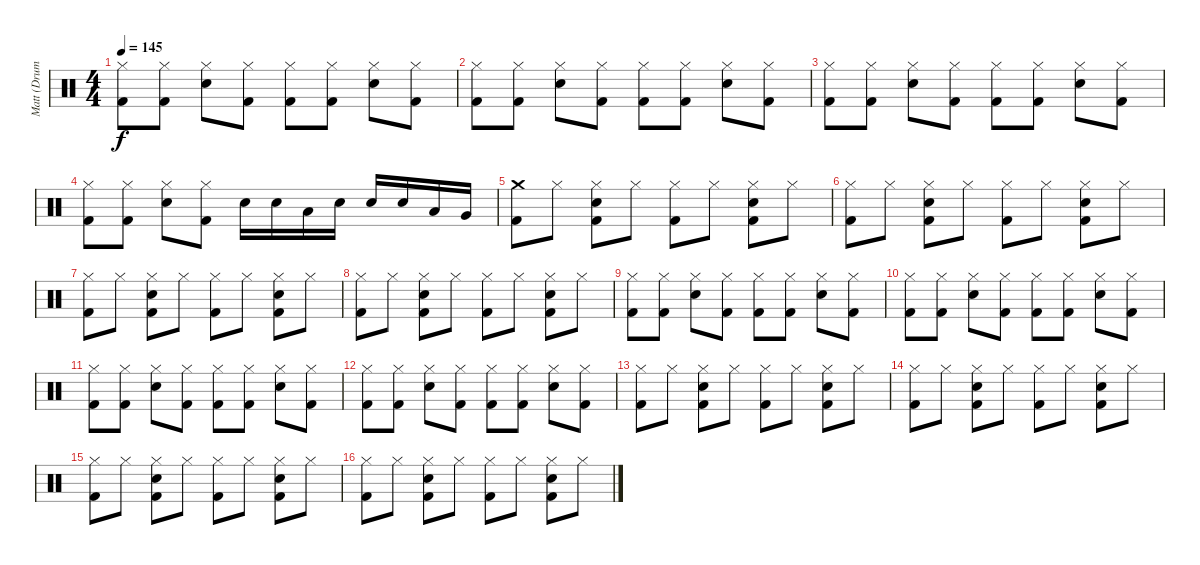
\track ("Matt (Drums)" "Matt (Drum") {instrument percussion}
\staff {score}
\articulation defaults
\ts (4 4)
\tempo 145
\clef neutral
\ks c
("Hi-Hat (closed)" "Kick (hit) 2").8{dy f} ("Hi-Hat (closed)" "Kick (hit) 2").8 ("Hi-Hat (closed)" "Electric Snare (hit)").8 ("Hi-Hat (closed)" "Kick (hit) 2").8 ("Hi-Hat (closed)" "Kick (hit) 2").8 ("Hi-Hat (closed)" "Kick (hit) 2").8 ("Hi-Hat (closed)" "Electric Snare (hit)").8 ("Hi-Hat (closed)" "Kick (hit) 2").8 |
("Hi-Hat (closed)" "Kick (hit) 2").8 ("Hi-Hat (closed)" "Kick (hit) 2").8 ("Hi-Hat (closed)" "Electric Snare (hit)").8 ("Hi-Hat (closed)" "Kick (hit) 2").8 ("Hi-Hat (closed)" "Kick (hit) 2").8 ("Hi-Hat (closed)" "Kick (hit) 2").8 ("Hi-Hat (closed)" "Electric Snare (hit)").8 ("Hi-Hat (closed)" "Kick (hit) 2").8 |
("Hi-Hat (closed)" "Kick (hit) 2").8 ("Hi-Hat (closed)" "Kick (hit) 2").8 ("Hi-Hat (closed)" "Electric Snare (hit)").8 ("Hi-Hat (closed)" "Kick (hit) 2").8 ("Hi-Hat (closed)" "Kick (hit) 2").8 ("Hi-Hat (closed)" "Kick (hit) 2").8 ("Hi-Hat (closed)" "Electric Snare (hit)").8 ("Hi-Hat (closed)" "Kick (hit) 2").8 |
("Hi-Hat (closed)" "Kick (hit) 2").8 ("Hi-Hat (closed)" "Kick (hit) 2").8 ("Hi-Hat (closed)" "Electric Snare (hit)").8 ("Hi-Hat (closed)" "Kick (hit) 2").8 "Electric Snare (hit)".16 "Electric Snare (hit)".16 "Low Tom (hit)".16 "Electric Snare (hit)".16 "Electric Snare (hit)".16 "Electric Snare (hit)".16 "Low Tom (hit)".16 "Very Low Tom (hit)".16 |
("Crash medium (hit)" "Kick (hit) 2").8 "Hi-Hat (closed)".8 ("Hi-Hat (closed)" "Electric Snare (hit)" "Kick (hit) 2").8 "Hi-Hat (closed)".8 ("Hi-Hat (closed)" "Kick (hit) 2").8 "Hi-Hat (closed)".8 ("Hi-Hat (closed)" "Electric Snare (hit)" "Kick (hit) 2").8 "Hi-Hat (closed)".8 |
("Hi-Hat (closed)" "Kick (hit) 2").8 "Hi-Hat (closed)".8 ("Hi-Hat (closed)" "Electric Snare (hit)" "Kick (hit) 2").8 "Hi-Hat (closed)".8 ("Hi-Hat (closed)" "Kick (hit) 2").8 "Hi-Hat (closed)".8 ("Hi-Hat (closed)" "Electric Snare (hit)" "Kick (hit) 2").8 "Hi-Hat (closed)".8 |
("Hi-Hat (closed)" "Kick (hit) 2").8 "Hi-Hat (closed)".8 ("Hi-Hat (closed)" "Electric Snare (hit)" "Kick (hit) 2").8 "Hi-Hat (closed)".8 ("Hi-Hat (closed)" "Kick (hit) 2").8 "Hi-Hat (closed)".8 ("Hi-Hat (closed)" "Electric Snare (hit)" "Kick (hit) 2").8 "Hi-Hat (closed)".8 |
("Hi-Hat (closed)" "Kick (hit) 2").8 "Hi-Hat (closed)".8 ("Hi-Hat (closed)" "Electric Snare (hit)" "Kick (hit) 2").8 "Hi-Hat (closed)".8 ("Hi-Hat (closed)" "Kick (hit) 2").8 "Hi-Hat (closed)".8 ("Hi-Hat (closed)" "Electric Snare (hit)" "Kick (hit) 2").8 "Hi-Hat (closed)".8 |
("Hi-Hat (closed)" "Kick (hit) 2").8 ("Hi-Hat (closed)" "Kick (hit) 2").8 ("Hi-Hat (closed)" "Electric Snare (hit)").8 ("Hi-Hat (closed)" "Kick (hit) 2").8 ("Hi-Hat (closed)" "Kick (hit) 2").8 ("Hi-Hat (closed)" "Kick (hit) 2").8 ("Hi-Hat (closed)" "Electric Snare (hit)").8 ("Hi-Hat (closed)" "Kick (hit) 2").8 |
("Hi-Hat (closed)" "Kick (hit) 2").8 ("Hi-Hat (closed)" "Kick (hit) 2").8 ("Hi-Hat (closed)" "Electric Snare (hit)").8 ("Hi-Hat (closed)" "Kick (hit) 2").8 ("Hi-Hat (closed)" "Kick (hit) 2").8 ("Hi-Hat (closed)" "Kick (hit) 2").8 ("Hi-Hat (closed)" "Electric Snare (hit)").8 ("Hi-Hat (closed)" "Kick (hit) 2").8 |
("Hi-Hat (closed)" "Kick (hit) 2").8 ("Hi-Hat (closed)" "Kick (hit) 2").8 ("Hi-Hat (closed)" "Electric Snare (hit)").8 ("Hi-Hat (closed)" "Kick (hit) 2").8 ("Hi-Hat (closed)" "Kick (hit) 2").8 ("Hi-Hat (closed)" "Kick (hit) 2").8 ("Hi-Hat (closed)" "Electric Snare (hit)").8 ("Hi-Hat (closed)" "Kick (hit) 2").8 |
("Hi-Hat (closed)" "Kick (hit) 2").8 ("Hi-Hat (closed)" "Kick (hit) 2").8 ("Hi-Hat (closed)" "Electric Snare (hit)").8 ("Hi-Hat (closed)" "Kick (hit) 2").8 ("Hi-Hat (closed)" "Kick (hit) 2").8 ("Hi-Hat (closed)" "Kick (hit) 2").8 ("Hi-Hat (closed)" "Electric Snare (hit)").8 ("Hi-Hat (closed)" "Kick (hit) 2").8 |
("Hi-Hat (closed)" "Kick (hit) 2").8 "Hi-Hat (closed)".8 ("Hi-Hat (closed)" "Electric Snare (hit)" "Kick (hit) 2").8 "Hi-Hat (closed)".8 ("Hi-Hat (closed)" "Kick (hit) 2").8 "Hi-Hat (closed)".8 ("Hi-Hat (closed)" "Electric Snare (hit)" "Kick (hit) 2").8 "Hi-Hat (closed)".8 |
("Hi-Hat (closed)" "Kick (hit) 2").8 "Hi-Hat (closed)".8 ("Hi-Hat (closed)" "Electric Snare (hit)" "Kick (hit) 2").8 "Hi-Hat (closed)".8 ("Hi-Hat (closed)" "Kick (hit) 2").8 "Hi-Hat (closed)".8 ("Hi-Hat (closed)" "Electric Snare (hit)" "Kick (hit) 2").8 "Hi-Hat (closed)".8 |
("Hi-Hat (closed)" "Kick (hit) 2").8 "Hi-Hat (closed)".8 ("Hi-Hat (closed)" "Electric Snare (hit)" "Kick (hit) 2").8 "Hi-Hat (closed)".8 ("Hi-Hat (closed)" "Kick (hit) 2").8 "Hi-Hat (closed)".8 ("Hi-Hat (closed)" "Electric Snare (hit)" "Kick (hit) 2").8 "Hi-Hat (closed)".8 |
("Hi-Hat (closed)" "Kick (hit) 2").8 "Hi-Hat (closed)".8 ("Hi-Hat (closed)" "Electric Snare (hit)" "Kick (hit) 2").8 "Hi-Hat (closed)".8 ("Hi-Hat (closed)" "Kick (hit) 2").8 "Hi-Hat (closed)".8 ("Hi-Hat (closed)" "Electric Snare (hit)" "Kick (hit) 2").8 "Hi-Hat (closed)".8
